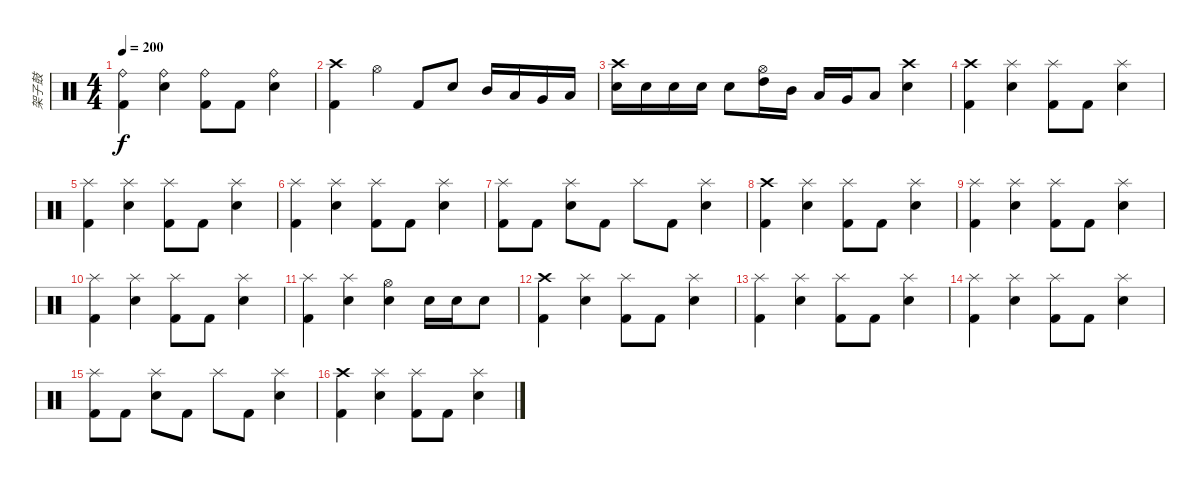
\track ("架子鼓" "架子鼓") {instrument percussion}
\staff {score}
\articulation defaults
\ts (4 4)
\tempo 200
\clef neutral
\ks c
("Ride (bell)" "Kick (hit) 2").4{dy f} ("Ride (bell)" "Snare (hit) 2").4 ("Ride (bell)" "Kick (hit) 2").8 "Kick (hit) 2".8 ("Ride (bell)" "Snare (hit) 2").4 |
("Crash high (hit)" "Kick (hit) 2").4 "Hi-Hat (open)".4 "Kick (hit) 2".8 "Snare (hit) 2".8 "Mid Tom (hit)".16 "Low Tom (hit)".16 "Very Low Tom (hit)".16 "Low Floor Tom (hit)".16 |
("Crash high (hit)" "Snare (hit) 2").16 "Snare (hit) 2".16 "Snare (hit) 2".16 "Snare (hit) 2".16 "Snare (hit) 2".8 ("Hi-Hat (open)" "High Tom (hit)").16 "Mid Tom (hit)".16 "Low Tom (hit)".16 "Very Low Tom (hit)".16 "Low Floor Tom (hit)".8 ("Crash high (hit)" "Electric Snare (hit)").4 |
("Crash high (hit)" "Kick (hit) 2").4 ("Splash (hit)" "Snare (hit) 2").4 ("Splash (hit)" "Kick (hit) 2").8 "Kick (hit) 2".8 ("Splash (hit)" "Snare (hit) 2").4 |
("Splash (hit)" "Kick (hit) 2").4 ("Splash (hit)" "Snare (hit) 2").4 ("Splash (hit)" "Kick (hit) 2").8 "Kick (hit) 2".8 ("Splash (hit)" "Snare (hit) 2").4 |
("Splash (hit)" "Kick (hit) 2").4 ("Splash (hit)" "Snare (hit) 2").4 ("Splash (hit)" "Kick (hit) 2").8 "Kick (hit) 2".8 ("Splash (hit)" "Snare (hit) 2").4 |
("Splash (hit)" "Kick (hit) 2").8 "Kick (hit) 2".8 ("Splash (hit)" "Snare (hit) 2").8 "Kick (hit) 2".8 "Splash (hit)".8 "Kick (hit) 2".8 ("Splash (hit)" "Snare (hit) 2").4 |
("Crash high (hit)" "Kick (hit) 2").4 ("Splash (hit)" "Snare (hit) 2").4 ("Splash (hit)" "Kick (hit) 2").8 "Kick (hit) 2".8 ("Splash (hit)" "Snare (hit) 2").4 |
("Splash (hit)" "Kick (hit) 2").4 ("Splash (hit)" "Snare (hit) 2").4 ("Splash (hit)" "Kick (hit) 2").8 "Kick (hit) 2".8 ("Splash (hit)" "Snare (hit) 2").4 |
("Splash (hit)" "Kick (hit) 2").4 ("Splash (hit)" "Snare (hit) 2").4 ("Splash (hit)" "Kick (hit) 2").8 "Kick (hit) 2".8 ("Splash (hit)" "Snare (hit) 2").4 |
("Splash (hit)" "Kick (hit) 2").4 ("Splash (hit)" "Snare (hit) 2").4 ("Hi-Hat (open)" "Snare (hit) 2").4 "Snare (hit) 2".16 "Snare (hit) 2".16 "Snare (hit) 2".8 |
("Crash high (hit)" "Kick (hit) 2").4 ("Splash (hit)" "Snare (hit) 2").4 ("Splash (hit)" "Kick (hit) 2").8 "Kick (hit) 2".8 ("Splash (hit)" "Snare (hit) 2").4 |
("Splash (hit)" "Kick (hit) 2").4 ("Splash (hit)" "Snare (hit) 2").4 ("Splash (hit)" "Kick (hit) 2").8 "Kick (hit) 2".8 ("Splash (hit)" "Snare (hit) 2").4 |
("Splash (hit)" "Kick (hit) 2").4 ("Splash (hit)" "Snare (hit) 2").4 ("Splash (hit)" "Kick (hit) 2").8 "Kick (hit) 2".8 ("Splash (hit)" "Snare (hit) 2").4 |
("Splash (hit)" "Kick (hit) 2").8 "Kick (hit) 2".8 ("Splash (hit)" "Snare (hit) 2").8 "Kick (hit) 2".8 "Splash (hit)".8 "Kick (hit) 2".8 ("Splash (hit)" "Snare (hit) 2").4 |
("Crash high (hit)" "Kick (hit) 2").4 ("Splash (hit)" "Snare (hit) 2").4 ("Splash (hit)" "Kick (hit) 2").8 "Kick (hit) 2".8 ("Splash (hit)" "Snare (hit) 2").4
